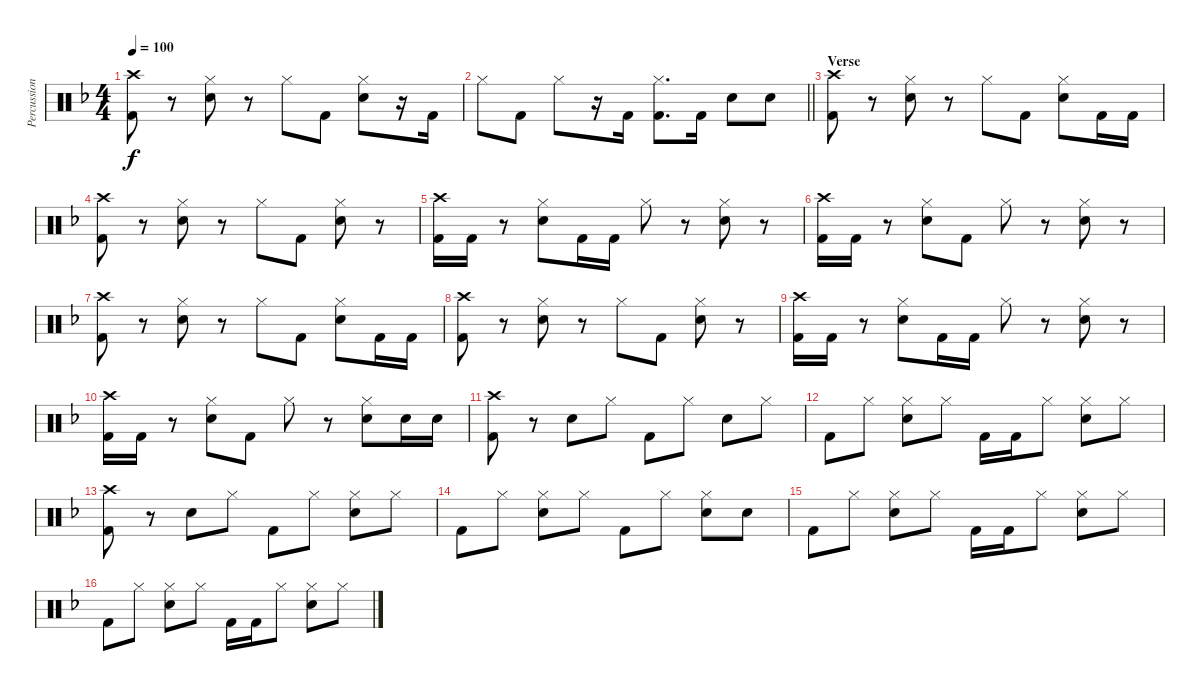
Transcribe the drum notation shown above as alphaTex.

\track ("Percussion" "Percussion") {instrument percussion}
\staff {score}
\articulation defaults
\ts (4 4)
\tempo 100
\clef neutral
\ks dminor
("Crash high (hit)" "Kick (hit) 2").8{dy f} r.8 ("Hi-Hat (closed)" "Snare (hit) 2").8 r.8 "Hi-Hat (closed)".8 "Kick (hit) 2".8 ("Hi-Hat (closed)" "Snare (hit) 2").8 r.16 "Kick (hit) 2".16 |
\barLineRight lightlight "Hi-Hat (closed)".8 "Kick (hit) 2".8 "Hi-Hat (closed)".8
r.16 "Kick (hit) 2".16 ("Hi-Hat (closed)" "Kick (hit) 2").8{d} "Kick (hit) 2".16 "Snare (hit) 2".8 "Snare (hit) 2".8 |
\section ("" "Verse")
("Crash high (hit)" "Kick (hit) 2").8 r.8 ("Hi-Hat (closed)" "Snare (hit) 2").8 r.8 "Hi-Hat (closed)".8 "Kick (hit) 2".8 ("Hi-Hat (closed)" "Snare (hit) 2").8 "Kick (hit) 2".16 "Kick (hit) 2".16 |
("Crash high (hit)" "Kick (hit) 2").8 r.8 ("Hi-Hat (closed)" "Snare (hit) 2").8 r.8 "Hi-Hat (closed)".8 "Kick (hit) 2".8 ("Hi-Hat (closed)" "Snare (hit) 2").8 r.8 |
("Crash high (hit)" "Kick (hit) 2").16 "Kick (hit) 2".16 r.8 ("Hi-Hat (closed)" "Snare (hit) 2").8 "Kick (hit) 2".16 "Kick (hit) 2".16 "Hi-Hat (closed)".8 r.8 ("Hi-Hat (closed)" "Snare (hit) 2").8 r.8 |
("Crash high (hit)" "Kick (hit) 2").16 "Kick (hit) 2".16 r.8 ("Hi-Hat (closed)" "Snare (hit) 2").8 "Kick (hit) 2".8 "Hi-Hat (closed)".8 r.8 ("Hi-Hat (closed)" "Snare (hit) 2").8 r.8 |
("Crash high (hit)" "Kick (hit) 2").8 r.8 ("Hi-Hat (closed)" "Snare (hit) 2").8 r.8 "Hi-Hat (closed)".8 "Kick (hit) 2".8 ("Hi-Hat (closed)" "Snare (hit) 2").8 "Kick (hit) 2".16 "Kick (hit) 2".16 |
("Crash high (hit)" "Kick (hit) 2").8 r.8 ("Hi-Hat (closed)" "Snare (hit) 2").8 r.8 "Hi-Hat (closed)".8 "Kick (hit) 2".8 ("Hi-Hat (closed)" "Snare (hit) 2").8 r.8 |
("Crash high (hit)" "Kick (hit) 2").16 "Kick (hit) 2".16 r.8 ("Hi-Hat (closed)" "Snare (hit) 2").8 "Kick (hit) 2".16 "Kick (hit) 2".16 "Hi-Hat (closed)".8 r.8 ("Hi-Hat (closed)" "Snare (hit) 2").8 r.8 |
("Crash high (hit)" "Kick (hit) 2").16 "Kick (hit) 2".16 r.8 ("Hi-Hat (closed)" "Snare (hit) 2").8 "Kick (hit) 2".8 "Hi-Hat (closed)".8 r.8 ("Hi-Hat (closed)" "Snare (hit) 2").8 "Snare (hit) 2".16 "Snare (hit) 2".16 |
("Crash high (hit)" "Kick (hit) 2").8 r.8 "Snare (hit) 2".8 "Hi-Hat (closed)".8 "Kick (hit) 2".8 "Hi-Hat (closed)".8 "Snare (hit) 2".8 "Hi-Hat (closed)".8 |
"Kick (hit) 2".8 "Hi-Hat (closed)".8 ("Hi-Hat (closed)" "Snare (hit) 2").8 "Hi-Hat (closed)".8 "Kick (hit) 2".16 "Kick (hit) 2".16 "Hi-Hat (closed)".8 ("Hi-Hat (closed)" "Snare (hit) 2").8 "Hi-Hat (closed)".8 |
("Crash high (hit)" "Kick (hit) 2").8 r.8 "Snare (hit) 2".8 "Hi-Hat (closed)".8 "Kick (hit) 2".8 "Hi-Hat (closed)".8 ("Hi-Hat (closed)" "Snare (hit) 2").8 "Hi-Hat (closed)".8 |
"Kick (hit) 2".8 "Hi-Hat (closed)".8 ("Hi-Hat (closed)" "Snare (hit) 2").8 "Hi-Hat (closed)".8 "Kick (hit) 2".8 "Hi-Hat (closed)".8 ("Hi-Hat (closed)" "Snare (hit) 2").8 "Snare (hit) 2".8 |
"Kick (hit) 2".8 "Hi-Hat (closed)".8 ("Hi-Hat (closed)" "Snare (hit) 2").8 "Hi-Hat (closed)".8 "Kick (hit) 2".16 "Kick (hit) 2".16 "Hi-Hat (closed)".8 ("Hi-Hat (closed)" "Snare (hit) 2").8 "Hi-Hat (closed)".8 |
"Kick (hit) 2".8 "Hi-Hat (closed)".8 ("Hi-Hat (closed)" "Snare (hit) 2").8 "Hi-Hat (closed)".8 "Kick (hit) 2".16 "Kick (hit) 2".16 "Hi-Hat (closed)".8 ("Hi-Hat (closed)" "Snare (hit) 2").8 "Hi-Hat (closed)".8
